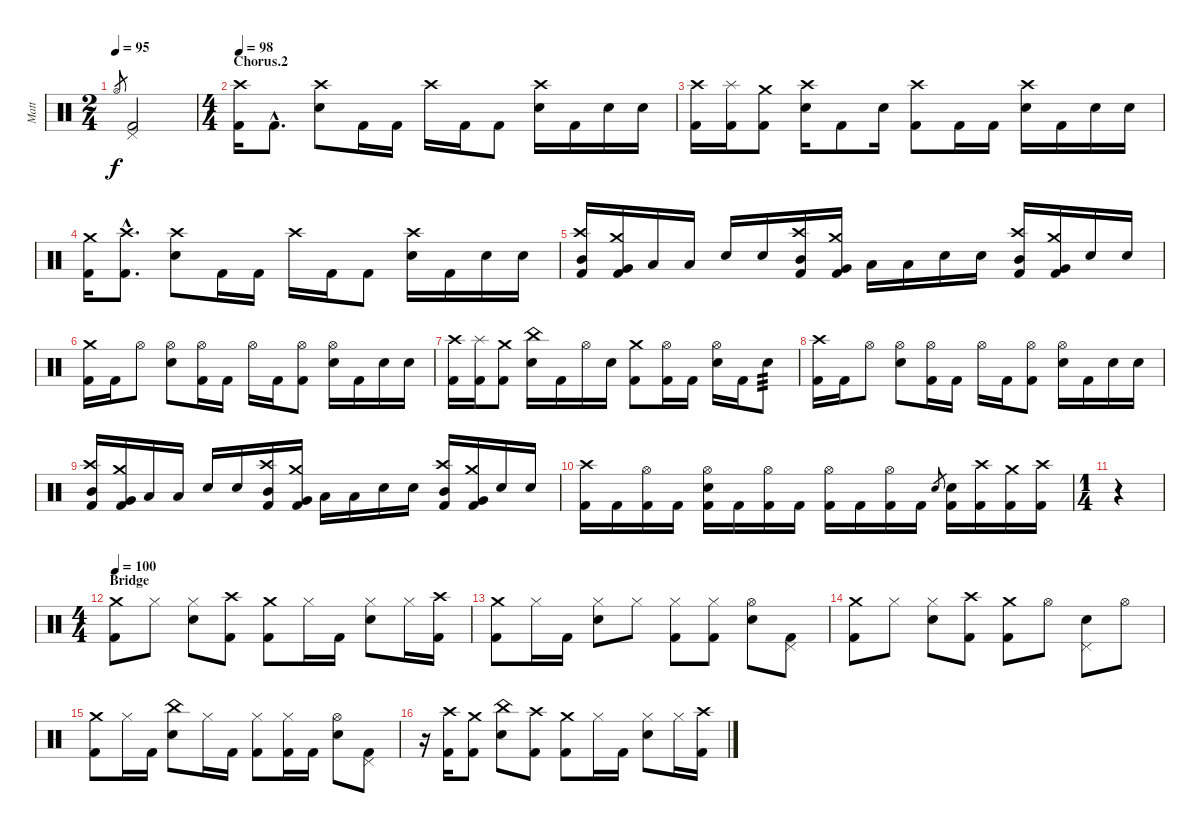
\track ("Matt" "Matt") {instrument percussion}
\staff {score}
\articulation defaults
\ts (2 4)
\tempo 95
\clef neutral
\ks c "Hi-Hat (open)".8{gr dy f}
("Pedal Hi-Hat (hit)" "Kick (hit) 2").2 |
\ts (4 4)
\section ("" "Chorus.2")
\tempo 98
("Crash high (hit)" "Kick (hit) 2").16 "Kick (hit) 2"{hac}.8{d} ("Crash high (hit)" "Electric Snare (hit)").8 "Kick (hit) 2".16 "Kick (hit) 2".16 "Crash high (hit)".16 "Kick (hit) 2".16 "Kick (hit) 2".8 ("Crash high (hit)" "Electric Snare (hit)").16 "Kick (hit) 2".16 "Electric Snare (hit)".16 "Electric Snare (hit)".16 |
("Crash high (hit)" "Kick (hit) 2").16 ("Splash (hit)" "Kick (hit) 2").16 ("Crash medium (hit)" "Kick (hit) 2").8 ("Crash high (hit)" "Electric Snare (hit)").16 "Kick (hit) 2".8 "Electric Snare (hit)".16 ("Crash high (hit)" "Kick (hit) 2").8 "Kick (hit) 2".16 "Kick (hit) 2".16 ("Crash high (hit)" "Electric Snare (hit)").16 "Kick (hit) 2".16 "Electric Snare (hit)".16 "Electric Snare (hit)".16 |
("Crash medium (hit)" "Kick (hit) 2").16 ("Crash high (hit)"{hac} "Kick (hit) 2"{hac}).8{d} ("Crash high (hit)" "Electric Snare (hit)").8 "Kick (hit) 2".16 "Kick (hit) 2".16 "Crash high (hit)".16 "Kick (hit) 2".16 "Kick (hit) 2".8 ("Crash high (hit)" "Electric Snare (hit)").16 "Kick (hit) 2".16 "Electric Snare (hit)".16 "Electric Snare (hit)".16 |
("Crash high (hit)" "Mid Tom (hit)" "Kick (hit) 2").16 ("Crash medium (hit)" "Very Low Tom (hit)" "Kick (hit) 2").16 "Low Floor Tom (hit)".16 "Low Tom (hit)".16 "Electric Snare (hit)".16 "Electric Snare (hit)".16 ("Crash high (hit)" "Mid Tom (hit)" "Kick (hit) 2").16 ("Crash medium (hit)" "Very Low Tom (hit)" "Kick (hit) 2").16 "Low Floor Tom (hit)".16 "Low Tom (hit)".16 "Electric Snare (hit)".16 "Electric Snare (hit)".16 ("Crash high (hit)" "Mid Tom (hit)" "Kick (hit) 2").16 ("Crash medium (hit)" "Very Low Tom (hit)" "Kick (hit) 2").16 "Electric Snare (hit)".16 "Electric Snare (hit)".16 |
("Crash medium (hit)" "Kick (hit) 2").16 "Kick (hit) 2".16 "Hi-Hat (open)".8 ("Hi-Hat (open)" "Electric Snare (hit)").8 ("Hi-Hat (open)" "Kick (hit) 2").16 "Kick (hit) 2".16 "Hi-Hat (open)".16 "Kick (hit) 2".16 ("Hi-Hat (open)" "Kick (hit) 2").8 ("Hi-Hat (open)" "Electric Snare (hit)").16 "Kick (hit) 2".16 "Electric Snare (hit)".16 "Electric Snare (hit)".16 |
("Crash high (hit)" "Kick (hit) 2").16 ("Splash (hit)" "Kick (hit) 2").16 ("Crash medium (hit)" "Kick (hit) 2").8 ("China (hit)" "Electric Snare (hit)").16 "Kick (hit) 2".16 "Hi-Hat (open)".16 "Electric Snare (hit)".16 ("Crash medium (hit)" "Kick (hit) 2").8 ("Hi-Hat (open)" "Kick (hit) 2").16 "Kick (hit) 2".16 ("Hi-Hat (open)" "Electric Snare (hit)").16 "Kick (hit) 2".16 "Electric Snare (hit)".8{tp 3} |
("Crash high (hit)" "Kick (hit) 2").16 "Kick (hit) 2".16 "Hi-Hat (open)".8 ("Hi-Hat (open)" "Electric Snare (hit)").8 ("Hi-Hat (open)" "Kick (hit) 2").16 "Kick (hit) 2".16 "Hi-Hat (open)".16 "Kick (hit) 2".16 ("Hi-Hat (open)" "Kick (hit) 2").8 ("Hi-Hat (open)" "Electric Snare (hit)").16 "Kick (hit) 2".16 "Electric Snare (hit)".16 "Electric Snare (hit)".16 |
("Crash high (hit)" "Mid Tom (hit)" "Kick (hit) 2").16 ("Crash medium (hit)" "Very Low Tom (hit)" "Kick (hit) 2").16 "Low Floor Tom (hit)".16 "Low Tom (hit)".16 "Electric Snare (hit)".16 "Electric Snare (hit)".16 ("Crash high (hit)" "Mid Tom (hit)" "Kick (hit) 2").16 ("Crash medium (hit)" "Very Low Tom (hit)" "Kick (hit) 2").16 "Low Floor Tom (hit)".16 "Low Tom (hit)".16 "Electric Snare (hit)".16 "Electric Snare (hit)".16 ("Crash high (hit)" "Mid Tom (hit)" "Kick (hit) 2").16 ("Crash medium (hit)" "Very Low Tom (hit)" "Kick (hit) 2").16 "Electric Snare (hit)".16 "Electric Snare (hit)".16 |
("Crash high (hit)" "Kick (hit) 2").16 "Kick (hit) 2".16 ("Hi-Hat (open)" "Kick (hit) 2").16 "Kick (hit) 2".16 ("Hi-Hat (open)" "Electric Snare (hit)" "Kick (hit) 2").16 "Kick (hit) 2".16 ("Hi-Hat (open)" "Kick (hit) 2").16 "Kick (hit) 2".16 ("Hi-Hat (open)" "Kick (hit) 2").16 "Kick (hit) 2".16 ("Hi-Hat (open)" "Kick (hit) 2").16 "Kick (hit) 2".16 "Electric Snare (hit)".8{gr} ("Electric Snare (hit)" "Kick (hit) 2").16 ("Crash high (hit)" "Kick (hit) 2").16 ("Crash medium (hit)" "Kick (hit) 2").16 ("Crash high (hit)" "Kick (hit) 2").16 |
\ts (1 4)
r.4 |
\ts (4 4)
\section ("" "Bridge")
\tempo 100
("Crash medium (hit)" "Kick (hit) 2").8 "Hi-Hat (closed)".8 ("Hi-Hat (closed)" "Electric Snare (hit)").8 ("Crash high (hit)" "Kick (hit) 2").8 ("Crash medium (hit)" "Kick (hit) 2").8 "Hi-Hat (closed)".16 "Kick (hit) 2".16 ("Hi-Hat (closed)" "Electric Snare (hit)").8 "Hi-Hat (closed)".16 ("Crash high (hit)" "Kick (hit) 2").16 |
("Crash medium (hit)" "Kick (hit) 2").8 "Hi-Hat (closed)".16 "Kick (hit) 2".16 ("Hi-Hat (closed)" "Electric Snare (hit)").8 "Hi-Hat (closed)".8 ("Hi-Hat (closed)" "Kick (hit) 2").8 ("Hi-Hat (closed)" "Kick (hit) 2").8 ("Hi-Hat (open)" "Electric Snare (hit)").8 ("Pedal Hi-Hat (hit)" "Kick (hit) 2").8 |
("Crash medium (hit)" "Kick (hit) 2").8 "Hi-Hat (closed)".8 ("Hi-Hat (closed)" "Electric Snare (hit)").8 ("Crash high (hit)" "Kick (hit) 2").8 ("Crash medium (hit)" "Kick (hit) 2").8 "Hi-Hat (open)".8 ("Pedal Hi-Hat (hit)" "Electric Snare (hit)").8 "Hi-Hat (open)".8 |
("Crash medium (hit)" "Kick (hit) 2").8 "Hi-Hat (closed)".16 "Kick (hit) 2".16 ("China (hit)" "Electric Snare (hit)").8 "Hi-Hat (closed)".16 "Kick (hit) 2".16 ("Hi-Hat (closed)" "Kick (hit) 2").8 ("Hi-Hat (closed)" "Kick (hit) 2").16 "Kick (hit) 2".16 ("Hi-Hat (open)" "Electric Snare (hit)").8 ("Pedal Hi-Hat (hit)" "Kick (hit) 2").8 |
r.16 ("Crash high (hit)" "Kick (hit) 2").16 ("Crash medium (hit)" "Kick (hit) 2").8 ("China (hit)" "Electric Snare (hit)").8 ("Crash high (hit)" "Kick (hit) 2").8 ("Crash medium (hit)" "Kick (hit) 2").8 "Hi-Hat (closed)".16 "Kick (hit) 2".16 ("Hi-Hat (closed)" "Electric Snare (hit)").8 "Hi-Hat (closed)".16 ("Crash high (hit)" "Kick (hit) 2").16
